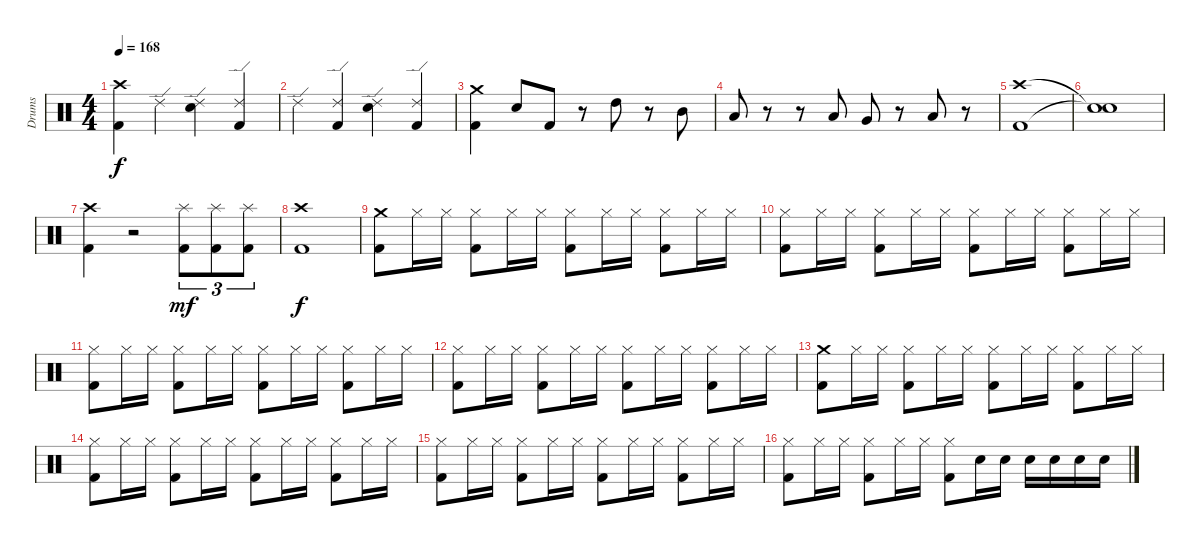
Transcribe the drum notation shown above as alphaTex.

\track ("Drums" "Drums") {instrument percussion}
\staff {score}
\articulation defaults
\ts (4 4)
\tempo 168
\clef neutral
\ks c
("Kick (hit) 2" "Crash high (hit)").4{dy f} "Ride (edge) 2".4 ("Electric Snare (hit)" "Ride (edge) 2").4 ("Kick (hit) 2" "Ride (edge) 2").4 |
"Ride (edge) 2".4 ("Kick (hit) 2" "Ride (edge) 2").4 ("Electric Snare (hit)" "Ride (edge) 2").4 ("Kick (hit) 2" "Ride (edge) 2").4 |
\section ("" "")
("Kick (hit) 2" "Crash medium (hit)").4 "Electric Snare (hit)".8 "Kick (hit) 2".8 r.8 "High Tom (hit)".8 r.8 "Mid Tom (hit)".8 |
"Low Tom (hit)".8 r.8 r.8 "Low Tom (hit)".8 "Very Low Tom (hit)".8 r.8 "Low Floor Tom (hit)".8 r.8 |
("Kick (hit) 2" "Crash high (hit)").1 |
("Snare (hit)"{t} "Snare (hit)"{t}).1 |
("Kick (hit) 2" "Crash high (hit)").4 r.2 ("Kick (hit) 2" "Splash (hit)").8{tu (3 2) dy mf} ("Kick (hit) 2" "Splash (hit)").8{tu (3 2)} ("Kick (hit) 2" "Splash (hit)").8{tu (3 2)} |
("Kick (hit) 2" "Crash high (hit)").1{dy f} |
\section ("" "")
("Kick (hit) 2" "Crash medium (hit)").8 "Hi-Hat (closed)".16 "Hi-Hat (closed)".16 ("Kick (hit) 2" "Hi-Hat (closed)").8 "Hi-Hat (closed)".16 "Hi-Hat (closed)".16 ("Kick (hit) 2" "Hi-Hat (closed)").8 "Hi-Hat (closed)".16 "Hi-Hat (closed)".16 ("Kick (hit) 2" "Hi-Hat (closed)").8 "Hi-Hat (closed)".16 "Hi-Hat (closed)".16 |
("Kick (hit) 2" "Hi-Hat (closed)").8 "Hi-Hat (closed)".16 "Hi-Hat (closed)".16 ("Kick (hit) 2" "Hi-Hat (closed)").8 "Hi-Hat (closed)".16 "Hi-Hat (closed)".16 ("Kick (hit) 2" "Hi-Hat (closed)").8 "Hi-Hat (closed)".16 "Hi-Hat (closed)".16 ("Kick (hit) 2" "Hi-Hat (closed)").8 "Hi-Hat (closed)".16 "Hi-Hat (closed)".16 |
("Kick (hit) 2" "Hi-Hat (closed)").8 "Hi-Hat (closed)".16 "Hi-Hat (closed)".16 ("Kick (hit) 2" "Hi-Hat (closed)").8 "Hi-Hat (closed)".16 "Hi-Hat (closed)".16 ("Kick (hit) 2" "Hi-Hat (closed)").8 "Hi-Hat (closed)".16 "Hi-Hat (closed)".16 ("Kick (hit) 2" "Hi-Hat (closed)").8 "Hi-Hat (closed)".16 "Hi-Hat (closed)".16 |
("Kick (hit) 2" "Hi-Hat (closed)").8 "Hi-Hat (closed)".16 "Hi-Hat (closed)".16 ("Kick (hit) 2" "Hi-Hat (closed)").8 "Hi-Hat (closed)".16 "Hi-Hat (closed)".16 ("Kick (hit) 2" "Hi-Hat (closed)").8 "Hi-Hat (closed)".16 "Hi-Hat (closed)".16 ("Kick (hit) 2" "Hi-Hat (closed)").8 "Hi-Hat (closed)".16 "Hi-Hat (closed)".16 |
\section ("" "")
("Kick (hit) 2" "Crash medium (hit)").8 "Hi-Hat (closed)".16 "Hi-Hat (closed)".16 ("Kick (hit) 2" "Hi-Hat (closed)").8 "Hi-Hat (closed)".16 "Hi-Hat (closed)".16 ("Kick (hit) 2" "Hi-Hat (closed)").8 "Hi-Hat (closed)".16 "Hi-Hat (closed)".16 ("Kick (hit) 2" "Hi-Hat (closed)").8 "Hi-Hat (closed)".16 "Hi-Hat (closed)".16 |
("Kick (hit) 2" "Hi-Hat (closed)").8 "Hi-Hat (closed)".16 "Hi-Hat (closed)".16 ("Kick (hit) 2" "Hi-Hat (closed)").8 "Hi-Hat (closed)".16 "Hi-Hat (closed)".16 ("Kick (hit) 2" "Hi-Hat (closed)").8 "Hi-Hat (closed)".16 "Hi-Hat (closed)".16 ("Kick (hit) 2" "Hi-Hat (closed)").8 "Hi-Hat (closed)".16 "Hi-Hat (closed)".16 |
("Kick (hit) 2" "Hi-Hat (closed)").8 "Hi-Hat (closed)".16 "Hi-Hat (closed)".16 ("Kick (hit) 2" "Hi-Hat (closed)").8 "Hi-Hat (closed)".16 "Hi-Hat (closed)".16 ("Kick (hit) 2" "Hi-Hat (closed)").8 "Hi-Hat (closed)".16 "Hi-Hat (closed)".16 ("Kick (hit) 2" "Hi-Hat (closed)").8 "Hi-Hat (closed)".16 "Hi-Hat (closed)".16 |
("Kick (hit) 2" "Hi-Hat (closed)").8 "Hi-Hat (closed)".16 "Hi-Hat (closed)".16 ("Kick (hit) 2" "Hi-Hat (closed)").8 "Hi-Hat (closed)".16 "Hi-Hat (closed)".16 ("Kick (hit) 2" "Hi-Hat (closed)").8 "Electric Snare (hit)".16 "Electric Snare (hit)".16 "Electric Snare (hit)".16 "Electric Snare (hit)".16 "Electric Snare (hit)".16 "Electric Snare (hit)".16
